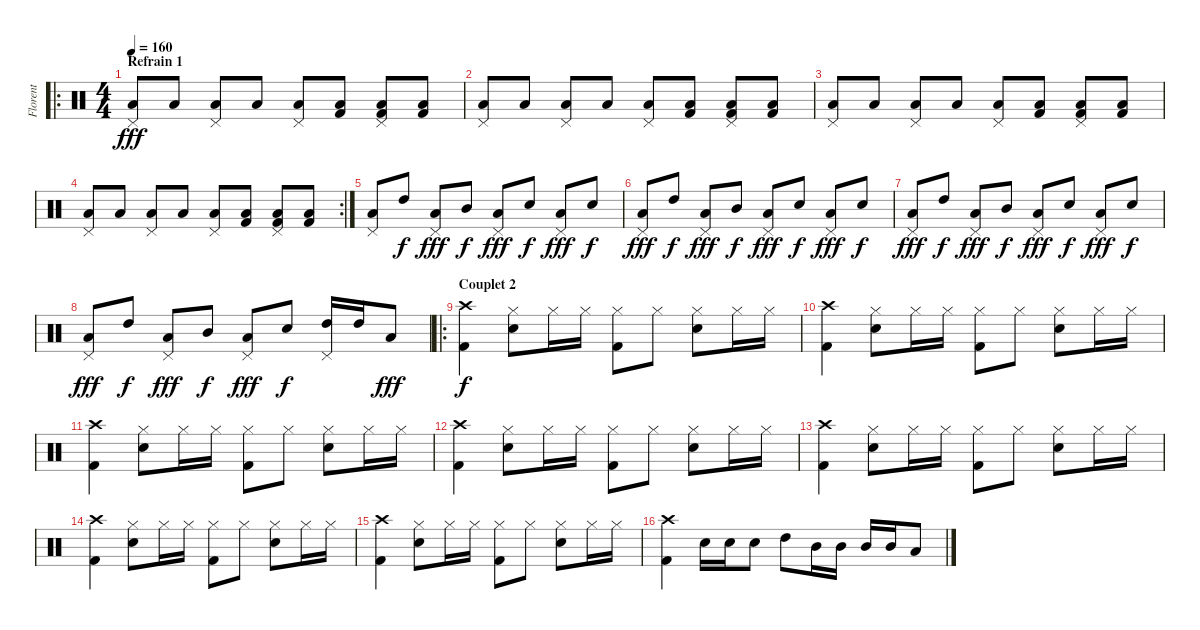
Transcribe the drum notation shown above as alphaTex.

\track ("Florent" "Florent") {instrument percussion}
\staff {score}
\articulation defaults
\ro
\ts (4 4)
\section ("" "Refrain 1")
\tempo 160
\clef neutral
\ks c
("Low Tom (hit)" "Pedal Hi-Hat (hit)").8{dy fff} "Low Tom (hit)".8 ("Low Tom (hit)" "Pedal Hi-Hat (hit)").8 "Low Tom (hit)".8 ("Low Tom (hit)" "Pedal Hi-Hat (hit)").8 ("Kick (hit) 2" "Low Tom (hit)").8 ("Kick (hit) 2" "Low Tom (hit)" "Pedal Hi-Hat (hit)").8 ("Kick (hit) 2" "Low Tom (hit)").8 |
("Low Tom (hit)" "Pedal Hi-Hat (hit)").8 "Low Tom (hit)".8 ("Low Tom (hit)" "Pedal Hi-Hat (hit)").8 "Low Tom (hit)".8 ("Low Tom (hit)" "Pedal Hi-Hat (hit)").8 ("Kick (hit) 2" "Low Tom (hit)").8 ("Kick (hit) 2" "Low Tom (hit)" "Pedal Hi-Hat (hit)").8 ("Kick (hit) 2" "Low Tom (hit)").8 |
("Low Tom (hit)" "Pedal Hi-Hat (hit)").8 "Low Tom (hit)".8 ("Low Tom (hit)" "Pedal Hi-Hat (hit)").8 "Low Tom (hit)".8 ("Low Tom (hit)" "Pedal Hi-Hat (hit)").8 ("Kick (hit) 2" "Low Tom (hit)").8 ("Kick (hit) 2" "Low Tom (hit)" "Pedal Hi-Hat (hit)").8 ("Kick (hit) 2" "Low Tom (hit)").8 |
\rc 2
("Low Tom (hit)" "Pedal Hi-Hat (hit)").8 "Low Tom (hit)".8 ("Low Tom (hit)" "Pedal Hi-Hat (hit)").8 "Low Tom (hit)".8 ("Low Tom (hit)" "Pedal Hi-Hat (hit)").8 ("Kick (hit) 2" "Low Tom (hit)").8 ("Kick (hit) 2" "Low Tom (hit)" "Pedal Hi-Hat (hit)").8 ("Kick (hit) 2" "Low Tom (hit)").8 |
("Low Tom (hit)" "Pedal Hi-Hat (hit)").8 "High Tom (hit)".8{dy f} ("Low Tom (hit)" "Pedal Hi-Hat (hit)").8{dy fff} "Mid Tom (hit)".8{dy f} ("Low Tom (hit)" "Pedal Hi-Hat (hit)").8{dy fff} "Snare (hit) 2".8{dy f} ("Low Tom (hit)" "Pedal Hi-Hat (hit)").8{dy fff} "Snare (hit) 2".8{dy f} |
("Low Tom (hit)" "Pedal Hi-Hat (hit)").8{dy fff} "High Tom (hit)".8{dy f} ("Low Tom (hit)" "Pedal Hi-Hat (hit)").8{dy fff} "Mid Tom (hit)".8{dy f} ("Low Tom (hit)" "Pedal Hi-Hat (hit)").8{dy fff} "Snare (hit) 2".8{dy f} ("Low Tom (hit)" "Pedal Hi-Hat (hit)").8{dy fff} "Snare (hit) 2".8{dy f} |
("Low Tom (hit)" "Pedal Hi-Hat (hit)").8{dy fff} "High Tom (hit)".8{dy f} ("Low Tom (hit)" "Pedal Hi-Hat (hit)").8{dy fff} "Mid Tom (hit)".8{dy f} ("Low Tom (hit)" "Pedal Hi-Hat (hit)").8{dy fff} "Snare (hit) 2".8{dy f} ("Low Tom (hit)" "Pedal Hi-Hat (hit)").8{dy fff} "Snare (hit) 2".8{dy f} |
("Low Tom (hit)" "Pedal Hi-Hat (hit)").8{dy fff} "High Tom (hit)".8{dy f} ("Low Tom (hit)" "Pedal Hi-Hat (hit)").8{dy fff} "Mid Tom (hit)".8{dy f} ("Low Tom (hit)" "Pedal Hi-Hat (hit)").8{dy fff} "Snare (hit) 2".8{dy f} ("High Tom (hit)" "Pedal Hi-Hat (hit)").16 "High Tom (hit)".16 "Low Tom (hit)".8{dy fff} |
\ro
\section ("" "Couplet 2")
("Crash high (hit)" "Kick (hit) 2").4{dy f} ("Hi-Hat (closed)" "Snare (hit) 2").8 "Hi-Hat (closed)".16 "Hi-Hat (closed)".16 ("Hi-Hat (closed)" "Kick (hit) 2").8 "Hi-Hat (closed)".8 ("Hi-Hat (closed)" "Snare (hit) 2").8 "Hi-Hat (closed)".16 "Hi-Hat (closed)".16 |
("Crash high (hit)" "Kick (hit) 2").4 ("Hi-Hat (closed)" "Snare (hit) 2").8 "Hi-Hat (closed)".16 "Hi-Hat (closed)".16 ("Hi-Hat (closed)" "Kick (hit) 2").8 "Hi-Hat (closed)".8 ("Hi-Hat (closed)" "Snare (hit) 2").8 "Hi-Hat (closed)".16 "Hi-Hat (closed)".16 |
("Crash high (hit)" "Kick (hit) 2").4 ("Hi-Hat (closed)" "Snare (hit) 2").8 "Hi-Hat (closed)".16 "Hi-Hat (closed)".16 ("Hi-Hat (closed)" "Kick (hit) 2").8 "Hi-Hat (closed)".8 ("Hi-Hat (closed)" "Snare (hit) 2").8 "Hi-Hat (closed)".16 "Hi-Hat (closed)".16 |
("Crash high (hit)" "Kick (hit) 2").4 ("Hi-Hat (closed)" "Snare (hit) 2").8 "Hi-Hat (closed)".16 "Hi-Hat (closed)".16 ("Hi-Hat (closed)" "Kick (hit) 2").8 "Hi-Hat (closed)".8 ("Hi-Hat (closed)" "Snare (hit) 2").8 "Hi-Hat (closed)".16 "Hi-Hat (closed)".16 |
("Crash high (hit)" "Kick (hit) 2").4 ("Hi-Hat (closed)" "Snare (hit) 2").8 "Hi-Hat (closed)".16 "Hi-Hat (closed)".16 ("Hi-Hat (closed)" "Kick (hit) 2").8 "Hi-Hat (closed)".8 ("Hi-Hat (closed)" "Snare (hit) 2").8 "Hi-Hat (closed)".16 "Hi-Hat (closed)".16 |
("Crash high (hit)" "Kick (hit) 2").4 ("Hi-Hat (closed)" "Snare (hit) 2").8 "Hi-Hat (closed)".16 "Hi-Hat (closed)".16 ("Hi-Hat (closed)" "Kick (hit) 2").8 "Hi-Hat (closed)".8 ("Hi-Hat (closed)" "Snare (hit) 2").8 "Hi-Hat (closed)".16 "Hi-Hat (closed)".16 |
("Crash high (hit)" "Kick (hit) 2").4 ("Hi-Hat (closed)" "Snare (hit) 2").8 "Hi-Hat (closed)".16 "Hi-Hat (closed)".16 ("Hi-Hat (closed)" "Kick (hit) 2").8 "Hi-Hat (closed)".8 ("Hi-Hat (closed)" "Snare (hit) 2").8 "Hi-Hat (closed)".16 "Hi-Hat (closed)".16 |
("Crash high (hit)" "Kick (hit) 2").4 "Snare (hit) 2".16 "Snare (hit) 2".16 "Snare (hit) 2".8 "High Tom (hit)".8 "Mid Tom (hit)".16 "Mid Tom (hit)".16 "Mid Tom (hit)".16 "Mid Tom (hit)".16 "Low Tom (hit)".8
